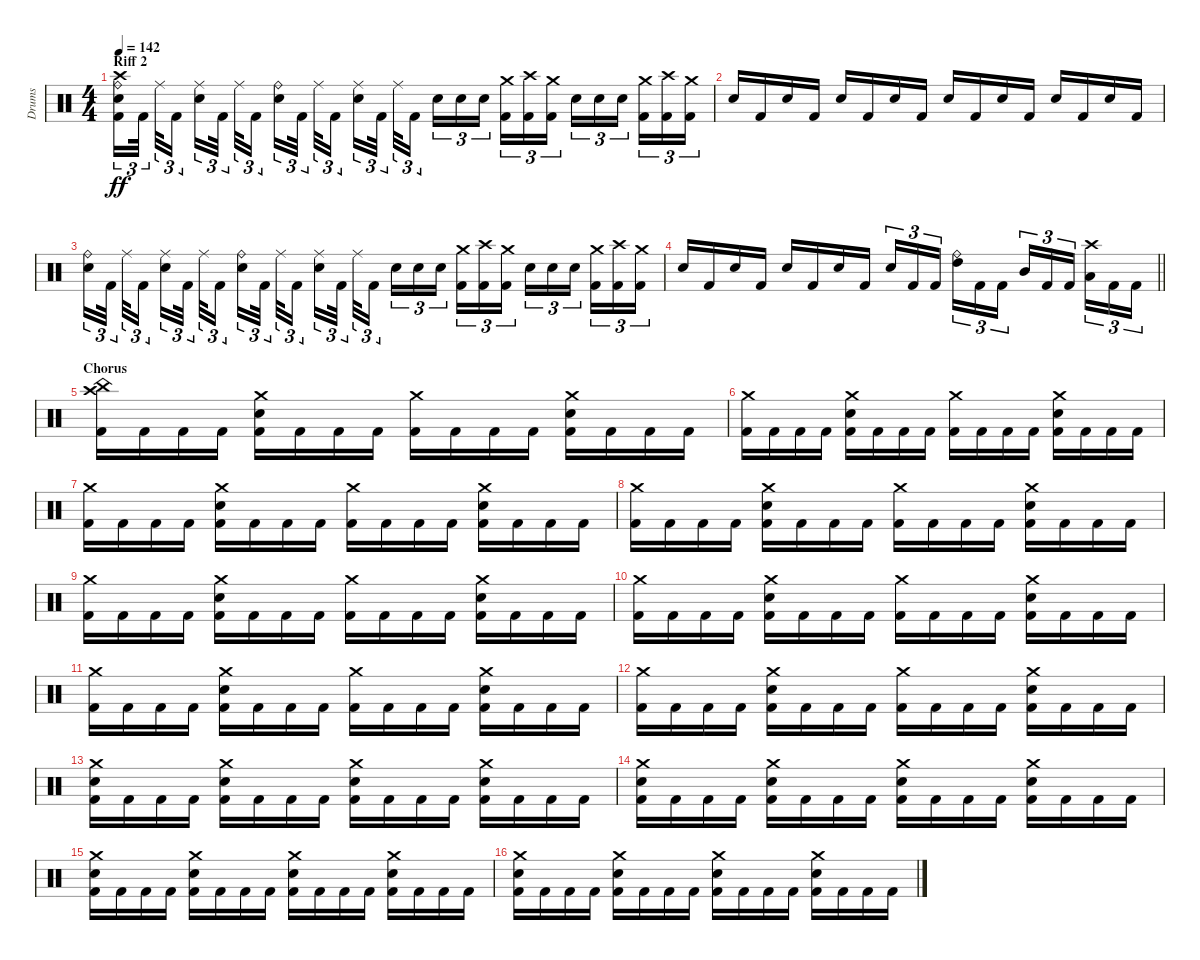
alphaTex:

\track ("Drums" "Drums") {instrument percussion}
\staff {score}
\articulation defaults
\ts (4 4)
\section ("" "Riff 2")
\tempo 142
\clef neutral
\ks c
("Crash high (hit)" "Kick (hit) 2" "Snare (hit) 2" "Ride (bell)").16{tu (3 2) dy ff} "Kick (hit) 2".32{tu (3 2) beam splitsecondary} "Ride (middle)".32{tu (3 2)} "Kick (hit) 2".16{tu (3 2) beam splitsecondary} ("Snare (hit) 2" "Ride (middle)").16{tu (3 2)} "Kick (hit) 2".32{tu (3 2) beam splitsecondary} "Ride (middle)".32{tu (3 2)} "Kick (hit) 2".16{tu (3 2)} ("Snare (hit) 2" "Ride (bell)").16{tu (3 2)} "Kick (hit) 2".32{tu (3 2) beam splitsecondary} "Ride (middle)".32{tu (3 2)} "Kick (hit) 2".16{tu (3 2) beam splitsecondary} ("Snare (hit) 2" "Ride (middle)").16{tu (3 2)} "Kick (hit) 2".32{tu (3 2) beam splitsecondary} "Ride (middle)".32{tu (3 2)} "Kick (hit) 2".16{tu (3 2)} "Snare (hit) 2".16{tu (3 2)} "Snare (hit) 2".16{tu (3 2)} "Snare (hit) 2".16{tu (3 2) beam splitsecondary} ("Crash medium (hit)" "Kick (hit) 2").16{tu (3 2)} ("Crash high (hit)" "Kick (hit) 2").16{tu (3 2)} ("Crash medium (hit)" "Kick (hit) 2").16{tu (3 2)} "Snare (hit) 2".16{tu (3 2)} "Snare (hit) 2".16{tu (3 2)} "Snare (hit) 2".16{tu (3 2) beam splitsecondary} ("Crash medium (hit)" "Kick (hit) 2").16{tu (3 2)} ("Crash high (hit)" "Kick (hit) 2").16{tu (3 2)} ("Crash medium (hit)" "Kick (hit) 2").16{tu (3 2)} |
"Snare (hit) 2".16 "Kick (hit) 2".16 "Snare (hit) 2".16 "Kick (hit) 2".16 "Snare (hit) 2".16 "Kick (hit) 2".16 "Snare (hit) 2".16 "Kick (hit) 2".16 "Snare (hit) 2".16 "Kick (hit) 2".16 "Snare (hit) 2".16 "Kick (hit) 2".16 "Snare (hit) 2".16 "Kick (hit) 2".16 "Snare (hit) 2".16 "Kick (hit) 2".16 |
("Snare (hit) 2" "Ride (bell)").16{tu (3 2)} "Kick (hit) 2".32{tu (3 2) beam splitsecondary} "Ride (middle)".32{tu (3 2)} "Kick (hit) 2".16{tu (3 2) beam splitsecondary} ("Snare (hit) 2" "Ride (middle)").16{tu (3 2)} "Kick (hit) 2".32{tu (3 2) beam splitsecondary} "Ride (middle)".32{tu (3 2)} "Kick (hit) 2".16{tu (3 2)} ("Snare (hit) 2" "Ride (bell)").16{tu (3 2)} "Kick (hit) 2".32{tu (3 2) beam splitsecondary} "Ride (middle)".32{tu (3 2)} "Kick (hit) 2".16{tu (3 2) beam splitsecondary} ("Snare (hit) 2" "Ride (middle)").16{tu (3 2)} "Kick (hit) 2".32{tu (3 2) beam splitsecondary} "Ride (middle)".32{tu (3 2)} "Kick (hit) 2".16{tu (3 2)} "Snare (hit) 2".16{tu (3 2)} "Snare (hit) 2".16{tu (3 2)} "Snare (hit) 2".16{tu (3 2) beam splitsecondary} ("Crash medium (hit)" "Kick (hit) 2").16{tu (3 2)} ("Crash high (hit)" "Kick (hit) 2").16{tu (3 2)} ("Crash medium (hit)" "Kick (hit) 2").16{tu (3 2)} "Snare (hit) 2".16{tu (3 2)} "Snare (hit) 2".16{tu (3 2)} "Snare (hit) 2".16{tu (3 2) beam splitsecondary} ("Crash medium (hit)" "Kick (hit) 2").16{tu (3 2)} ("Crash high (hit)" "Kick (hit) 2").16{tu (3 2)} ("Crash medium (hit)" "Kick (hit) 2").16{tu (3 2)} |
\barLineRight lightlight "Snare (hit) 2".16 "Kick (hit) 2".16 "Snare (hit) 2".16 "Kick (hit) 2".16 "Snare (hit) 2".16 "Kick (hit) 2".16 "Snare (hit) 2".16 "Kick (hit) 2".16 "Snare (hit) 2".16{tu (3 2)} "Kick (hit) 2".16{tu (3 2)} "Kick (hit) 2".16{tu (3 2) beam splitsecondary}
("High Tom (hit)" "Ride (bell)").16{tu (3 2)} "Kick (hit) 2".16{tu (3 2)} "Kick (hit) 2".16{tu (3 2)} "Mid Tom (hit)".16{tu (3 2)} "Kick (hit) 2".16{tu (3 2)} "Kick (hit) 2".16{tu (3 2) beam splitsecondary} ("Crash high (hit)" "Low Tom (hit)").16{tu (3 2)} "Kick (hit) 2".16{tu (3 2)} "Kick (hit) 2".16{tu (3 2)} |
\section ("" "Chorus")
("China (hit)" "Crash high (hit)" "Kick (hit) 2").16 "Kick (hit) 2".16 "Kick (hit) 2".16 "Kick (hit) 2".16 ("Crash medium (hit)" "Kick (hit) 2" "Snare (hit) 2").16 "Kick (hit) 2".16 "Kick (hit) 2".16 "Kick (hit) 2".16 ("Crash medium (hit)" "Kick (hit) 2").16 "Kick (hit) 2".16 "Kick (hit) 2".16 "Kick (hit) 2".16 ("Crash medium (hit)" "Kick (hit) 2" "Snare (hit) 2").16 "Kick (hit) 2".16 "Kick (hit) 2".16 "Kick (hit) 2".16 |
("Crash medium (hit)" "Kick (hit) 2").16 "Kick (hit) 2".16 "Kick (hit) 2".16 "Kick (hit) 2".16 ("Crash medium (hit)" "Kick (hit) 2" "Snare (hit) 2").16 "Kick (hit) 2".16 "Kick (hit) 2".16 "Kick (hit) 2".16 ("Crash medium (hit)" "Kick (hit) 2").16 "Kick (hit) 2".16 "Kick (hit) 2".16 "Kick (hit) 2".16 ("Crash medium (hit)" "Kick (hit) 2" "Snare (hit) 2").16 "Kick (hit) 2".16 "Kick (hit) 2".16 "Kick (hit) 2".16 |
("Crash medium (hit)" "Kick (hit) 2").16 "Kick (hit) 2".16 "Kick (hit) 2".16 "Kick (hit) 2".16 ("Crash medium (hit)" "Kick (hit) 2" "Snare (hit) 2").16 "Kick (hit) 2".16 "Kick (hit) 2".16 "Kick (hit) 2".16 ("Crash medium (hit)" "Kick (hit) 2").16 "Kick (hit) 2".16 "Kick (hit) 2".16 "Kick (hit) 2".16 ("Crash medium (hit)" "Kick (hit) 2" "Snare (hit) 2").16 "Kick (hit) 2".16 "Kick (hit) 2".16 "Kick (hit) 2".16 |
("Crash medium (hit)" "Kick (hit) 2").16 "Kick (hit) 2".16 "Kick (hit) 2".16 "Kick (hit) 2".16 ("Crash medium (hit)" "Kick (hit) 2" "Snare (hit) 2").16 "Kick (hit) 2".16 "Kick (hit) 2".16 "Kick (hit) 2".16 ("Crash medium (hit)" "Kick (hit) 2").16 "Kick (hit) 2".16 "Kick (hit) 2".16 "Kick (hit) 2".16 ("Crash medium (hit)" "Kick (hit) 2" "Snare (hit) 2").16 "Kick (hit) 2".16 "Kick (hit) 2".16 "Kick (hit) 2".16 |
("Crash medium (hit)" "Kick (hit) 2").16 "Kick (hit) 2".16 "Kick (hit) 2".16 "Kick (hit) 2".16 ("Crash medium (hit)" "Kick (hit) 2" "Snare (hit) 2").16 "Kick (hit) 2".16 "Kick (hit) 2".16 "Kick (hit) 2".16 ("Crash medium (hit)" "Kick (hit) 2").16 "Kick (hit) 2".16 "Kick (hit) 2".16 "Kick (hit) 2".16 ("Crash medium (hit)" "Kick (hit) 2" "Snare (hit) 2").16 "Kick (hit) 2".16 "Kick (hit) 2".16 "Kick (hit) 2".16 |
("Crash medium (hit)" "Kick (hit) 2").16 "Kick (hit) 2".16 "Kick (hit) 2".16 "Kick (hit) 2".16 ("Crash medium (hit)" "Kick (hit) 2" "Snare (hit) 2").16 "Kick (hit) 2".16 "Kick (hit) 2".16 "Kick (hit) 2".16 ("Crash medium (hit)" "Kick (hit) 2").16 "Kick (hit) 2".16 "Kick (hit) 2".16 "Kick (hit) 2".16 ("Crash medium (hit)" "Kick (hit) 2" "Snare (hit) 2").16 "Kick (hit) 2".16 "Kick (hit) 2".16 "Kick (hit) 2".16 |
("Crash medium (hit)" "Kick (hit) 2").16 "Kick (hit) 2".16 "Kick (hit) 2".16 "Kick (hit) 2".16 ("Crash medium (hit)" "Kick (hit) 2" "Snare (hit) 2").16 "Kick (hit) 2".16 "Kick (hit) 2".16 "Kick (hit) 2".16 ("Crash medium (hit)" "Kick (hit) 2").16 "Kick (hit) 2".16 "Kick (hit) 2".16 "Kick (hit) 2".16 ("Crash medium (hit)" "Kick (hit) 2" "Snare (hit) 2").16 "Kick (hit) 2".16 "Kick (hit) 2".16 "Kick (hit) 2".16 |
("Crash medium (hit)" "Kick (hit) 2").16 "Kick (hit) 2".16 "Kick (hit) 2".16 "Kick (hit) 2".16 ("Crash medium (hit)" "Kick (hit) 2" "Snare (hit) 2").16 "Kick (hit) 2".16 "Kick (hit) 2".16 "Kick (hit) 2".16 ("Crash medium (hit)" "Kick (hit) 2").16 "Kick (hit) 2".16 "Kick (hit) 2".16 "Kick (hit) 2".16 ("Crash medium (hit)" "Kick (hit) 2" "Snare (hit) 2").16 "Kick (hit) 2".16 "Kick (hit) 2".16 "Kick (hit) 2".16 |
("Crash medium (hit)" "Kick (hit) 2" "Snare (hit) 2").16 "Kick (hit) 2".16 "Kick (hit) 2".16 "Kick (hit) 2".16 ("Crash medium (hit)" "Kick (hit) 2" "Snare (hit) 2").16 "Kick (hit) 2".16 "Kick (hit) 2".16 "Kick (hit) 2".16 ("Crash medium (hit)" "Kick (hit) 2" "Snare (hit) 2").16 "Kick (hit) 2".16 "Kick (hit) 2".16 "Kick (hit) 2".16 ("Crash medium (hit)" "Kick (hit) 2" "Snare (hit) 2").16 "Kick (hit) 2".16 "Kick (hit) 2".16 "Kick (hit) 2".16 |
("Crash medium (hit)" "Kick (hit) 2" "Snare (hit) 2").16 "Kick (hit) 2".16 "Kick (hit) 2".16 "Kick (hit) 2".16 ("Crash medium (hit)" "Kick (hit) 2" "Snare (hit) 2").16 "Kick (hit) 2".16 "Kick (hit) 2".16 "Kick (hit) 2".16 ("Crash medium (hit)" "Kick (hit) 2" "Snare (hit) 2").16 "Kick (hit) 2".16 "Kick (hit) 2".16 "Kick (hit) 2".16 ("Crash medium (hit)" "Kick (hit) 2" "Snare (hit) 2").16 "Kick (hit) 2".16 "Kick (hit) 2".16 "Kick (hit) 2".16 |
("Crash medium (hit)" "Kick (hit) 2" "Snare (hit) 2").16 "Kick (hit) 2".16 "Kick (hit) 2".16 "Kick (hit) 2".16 ("Crash medium (hit)" "Kick (hit) 2" "Snare (hit) 2").16 "Kick (hit) 2".16 "Kick (hit) 2".16 "Kick (hit) 2".16 ("Crash medium (hit)" "Kick (hit) 2" "Snare (hit) 2").16 "Kick (hit) 2".16 "Kick (hit) 2".16 "Kick (hit) 2".16 ("Crash medium (hit)" "Kick (hit) 2" "Snare (hit) 2").16 "Kick (hit) 2".16 "Kick (hit) 2".16 "Kick (hit) 2".16 |
("Crash medium (hit)" "Kick (hit) 2" "Snare (hit) 2").16 "Kick (hit) 2".16 "Kick (hit) 2".16 "Kick (hit) 2".16 ("Crash medium (hit)" "Kick (hit) 2" "Snare (hit) 2").16 "Kick (hit) 2".16 "Kick (hit) 2".16 "Kick (hit) 2".16 ("Crash medium (hit)" "Kick (hit) 2" "Snare (hit) 2").16 "Kick (hit) 2".16 "Kick (hit) 2".16 "Kick (hit) 2".16 ("Crash medium (hit)" "Kick (hit) 2" "Snare (hit) 2").16 "Kick (hit) 2".16 "Kick (hit) 2".16 "Kick (hit) 2".16
